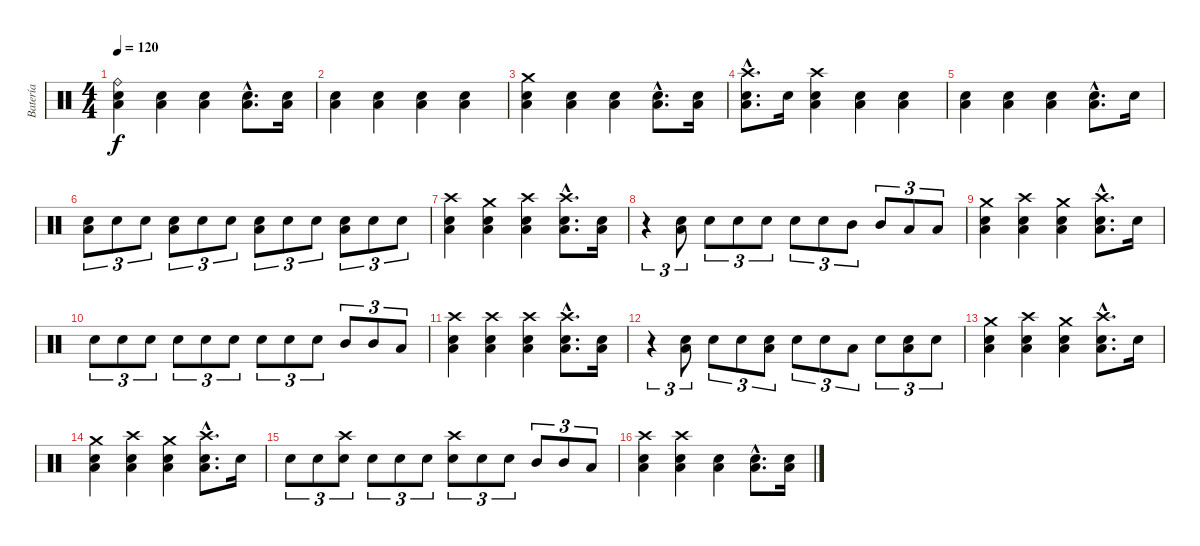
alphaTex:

\track ("Batería" "Batería") {instrument percussion}
\staff {score}
\articulation defaults
\ts (4 4)
\tempo 120
\clef neutral
\ks c
("Ride (bell)" "Low Tom (hit)" "Electric Snare (hit)").4{dy f} ("Low Tom (hit)" "Electric Snare (hit)").4 ("Low Tom (hit)" "Electric Snare (hit)").4 ("Low Tom (hit)"{hac} "Electric Snare (hit)"{hac}).8{d} ("Low Tom (hit)" "Electric Snare (hit)").16 |
("Low Tom (hit)" "Electric Snare (hit)").4 ("Low Tom (hit)" "Electric Snare (hit)").4 ("Low Tom (hit)" "Electric Snare (hit)").4 ("Low Tom (hit)" "Electric Snare (hit)").4 |
("Crash medium (hit)" "Low Tom (hit)" "Electric Snare (hit)").4 ("Low Tom (hit)" "Electric Snare (hit)").4 ("Low Tom (hit)" "Electric Snare (hit)").4 ("Low Tom (hit)"{hac} "Electric Snare (hit)"{hac}).8{d} ("Low Tom (hit)" "Electric Snare (hit)").16 |
("Crash high (hit)"{hac} "Low Tom (hit)"{hac} "Electric Snare (hit)"{hac}).8{d} "Electric Snare (hit)".16 ("Crash high (hit)" "Low Tom (hit)" "Electric Snare (hit)").4 ("Low Tom (hit)" "Electric Snare (hit)").4 ("Low Tom (hit)" "Electric Snare (hit)").4 |
("Low Tom (hit)" "Electric Snare (hit)").4 ("Low Tom (hit)" "Electric Snare (hit)").4 ("Low Tom (hit)" "Electric Snare (hit)").4 ("Low Tom (hit)"{hac} "Electric Snare (hit)"{hac}).8{d} "Electric Snare (hit)".16 |
("Low Tom (hit)" "Electric Snare (hit)").8{tu (3 2)} "Electric Snare (hit)".8{tu (3 2)} "Electric Snare (hit)".8{tu (3 2)} ("Low Tom (hit)" "Electric Snare (hit)").8{tu (3 2)} "Electric Snare (hit)".8{tu (3 2)} "Electric Snare (hit)".8{tu (3 2)} ("Low Tom (hit)" "Electric Snare (hit)").8{tu (3 2)} "Electric Snare (hit)".8{tu (3 2)} "Electric Snare (hit)".8{tu (3 2)} ("Low Tom (hit)" "Electric Snare (hit)").8{tu (3 2)} "Electric Snare (hit)".8{tu (3 2)} "Electric Snare (hit)".8{tu (3 2)} |
("Crash high (hit)" "Low Tom (hit)" "Electric Snare (hit)").4 ("Crash medium (hit)" "Low Tom (hit)" "Electric Snare (hit)").4 ("Crash high (hit)" "Low Tom (hit)" "Electric Snare (hit)").4 ("Crash high (hit)"{hac} "Low Tom (hit)"{hac} "Electric Snare (hit)"{hac}).8{d} ("Low Tom (hit)" "Electric Snare (hit)").16 |
r.4{tu (3 2)} ("Low Tom (hit)" "Electric Snare (hit)").8{tu (3 2)} "Electric Snare (hit)".8{tu (3 2)} "Electric Snare (hit)".8{tu (3 2)} "Electric Snare (hit)".8{tu (3 2)} "Electric Snare (hit)".8{tu (3 2)} "Electric Snare (hit)".8{tu (3 2)} "Mid Tom (hit)".8{tu (3 2)} "Mid Tom (hit)".8{tu (3 2)} "Low Tom (hit)".8{tu (3 2)} "Low Tom (hit)".8{tu (3 2)} |
("Crash medium (hit)" "Low Tom (hit)" "Electric Snare (hit)").4 ("Crash high (hit)" "Low Tom (hit)" "Electric Snare (hit)").4 ("Crash medium (hit)" "Low Tom (hit)" "Electric Snare (hit)").4 ("Crash high (hit)"{hac} "Low Tom (hit)"{hac} "Electric Snare (hit)"{hac}).8{d} "Electric Snare (hit)".16 |
"Electric Snare (hit)".8{tu (3 2)} "Electric Snare (hit)".8{tu (3 2)} "Electric Snare (hit)".8{tu (3 2)} "Electric Snare (hit)".8{tu (3 2)} "Electric Snare (hit)".8{tu (3 2)} "Electric Snare (hit)".8{tu (3 2)} "Electric Snare (hit)".8{tu (3 2)} "Electric Snare (hit)".8{tu (3 2)} "Electric Snare (hit)".8{tu (3 2)} "Mid Tom (hit)".8{tu (3 2)} "Mid Tom (hit)".8{tu (3 2)} "Low Tom (hit)".8{tu (3 2)} |
("Crash high (hit)" "Low Tom (hit)" "Electric Snare (hit)").4 ("Crash high (hit)" "Low Tom (hit)" "Electric Snare (hit)").4 ("Crash high (hit)" "Low Tom (hit)" "Electric Snare (hit)").4 ("Crash high (hit)"{hac} "Low Tom (hit)"{hac} "Electric Snare (hit)"{hac}).8{d} ("Low Tom (hit)" "Electric Snare (hit)").16 |
r.4{tu (3 2)} ("Low Tom (hit)" "Electric Snare (hit)").8{tu (3 2)} "Electric Snare (hit)".8{tu (3 2)} "Electric Snare (hit)".8{tu (3 2)} ("Low Tom (hit)" "Electric Snare (hit)").8{tu (3 2)} "Electric Snare (hit)".8{tu (3 2)} "Electric Snare (hit)".8{tu (3 2)} "Low Tom (hit)".8{tu (3 2)} "Electric Snare (hit)".8{tu (3 2)} ("Low Tom (hit)" "Electric Snare (hit)").8{tu (3 2)} "Electric Snare (hit)".8{tu (3 2)} |
("Crash medium (hit)" "Low Tom (hit)" "Electric Snare (hit)").4 ("Crash high (hit)" "Low Tom (hit)" "Electric Snare (hit)").4 ("Crash medium (hit)" "Low Tom (hit)" "Electric Snare (hit)").4 ("Crash high (hit)"{hac} "Low Tom (hit)"{hac} "Electric Snare (hit)"{hac}).8{d} "Electric Snare (hit)".16 |
("Crash medium (hit)" "Low Tom (hit)" "Electric Snare (hit)").4 ("Crash high (hit)" "Low Tom (hit)" "Electric Snare (hit)").4 ("Crash medium (hit)" "Low Tom (hit)" "Electric Snare (hit)").4 ("Crash high (hit)"{hac} "Low Tom (hit)"{hac} "Electric Snare (hit)"{hac}).8{d} "Electric Snare (hit)".16 |
"Electric Snare (hit)".8{tu (3 2)} "Electric Snare (hit)".8{tu (3 2)} ("Crash high (hit)" "Electric Snare (hit)").8{tu (3 2)} "Electric Snare (hit)".8{tu (3 2)} "Electric Snare (hit)".8{tu (3 2)} "Electric Snare (hit)".8{tu (3 2)} ("Crash high (hit)" "Electric Snare (hit)").8{tu (3 2)} "Electric Snare (hit)".8{tu (3 2)} "Electric Snare (hit)".8{tu (3 2)} "Mid Tom (hit)".8{tu (3 2)} "Mid Tom (hit)".8{tu (3 2)} "Low Tom (hit)".8{tu (3 2)} |
("Crash high (hit)" "Low Tom (hit)" "Electric Snare (hit)").4 ("Crash high (hit)" "Low Tom (hit)" "Electric Snare (hit)").4 ("Low Tom (hit)" "Electric Snare (hit)").4 ("Low Tom (hit)"{hac} "Electric Snare (hit)"{hac}).8{d} ("Low Tom (hit)" "Electric Snare (hit)").16
